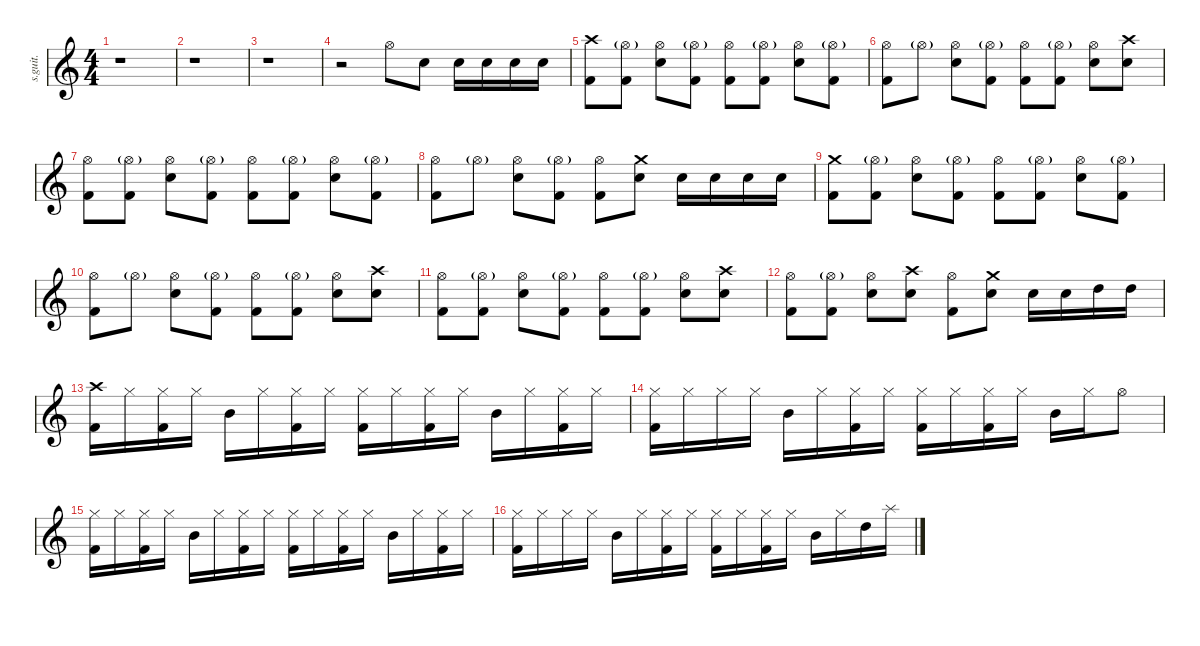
\defaultSystemsLayout 4
\hideDynamics
\bracketExtendMode nobrackets
\track ("Feargal Lawler (Drums)" "s.guit.") {instrument percussion}
\staff {score}
\articulation defaults
\ts (4 4)
\beaming (8 2 2 2 2)
\tempo (74 hide)
\clef g2
\ks c
r.1{dy ff} |
r.1 |
r.1 |
\tempo (82 hide)
r.2 "Hi-Hat (open)".8{lyrics (0 "") lyrics (1 "") lyrics (2 "") lyrics (3 "") lyrics (4 "")} "Snare (hit) 2".8{lyrics (0 "") lyrics (1 "") lyrics (2 "") lyrics (3 "") lyrics (4 "")} "Snare (hit) 2".16{lyrics (0 "") lyrics (1 "") lyrics (2 "") lyrics (3 "") lyrics (4 "")} "Snare (hit) 2".16{lyrics (0 "") lyrics (1 "") lyrics (2 "") lyrics (3 "") lyrics (4 "")} "Snare (hit) 2".16{lyrics (0 "") lyrics (1 "") lyrics (2 "") lyrics (3 "") lyrics (4 "")} "Snare (hit) 2".16{lyrics (0 "") lyrics (1 "") lyrics (2 "") lyrics (3 "") lyrics (4 "")} |
("Crash high (hit)" "Kick (hit) 2").8{lyrics (0 "") lyrics (1 "") lyrics (2 "") lyrics (3 "") lyrics (4 "")} ("Hi-Hat (open)"{g} "Kick (hit) 2").8{lyrics (0 "") lyrics (1 "") lyrics (2 "") lyrics (3 "") lyrics (4 "")} ("Hi-Hat (open)" "Snare (hit) 2").8{lyrics (0 "") lyrics (1 "") lyrics (2 "") lyrics (3 "") lyrics (4 "")} ("Hi-Hat (open)"{g} "Kick (hit) 2").8{lyrics (0 "") lyrics (1 "") lyrics (2 "") lyrics (3 "") lyrics (4 "")} ("Hi-Hat (open)" "Kick (hit) 2").8{lyrics (0 "") lyrics (1 "") lyrics (2 "") lyrics (3 "") lyrics (4 "")} ("Hi-Hat (open)"{g} "Kick (hit) 2").8{lyrics (0 "") lyrics (1 "") lyrics (2 "") lyrics (3 "") lyrics (4 "")} ("Hi-Hat (open)" "Snare (hit) 2").8{lyrics (0 "") lyrics (1 "") lyrics (2 "") lyrics (3 "") lyrics (4 "")} ("Hi-Hat (open)"{g} "Kick (hit) 2").8{lyrics (0 "") lyrics (1 "") lyrics (2 "") lyrics (3 "") lyrics (4 "")} |
("Hi-Hat (open)" "Kick (hit) 2").8{lyrics (0 "") lyrics (1 "") lyrics (2 "") lyrics (3 "") lyrics (4 "")} "Hi-Hat (open)"{g}.8{lyrics (0 "") lyrics (1 "") lyrics (2 "") lyrics (3 "") lyrics (4 "")} ("Hi-Hat (open)" "Snare (hit) 2").8{lyrics (0 "") lyrics (1 "") lyrics (2 "") lyrics (3 "") lyrics (4 "")} ("Hi-Hat (open)"{g} "Kick (hit) 2").8{lyrics (0 "") lyrics (1 "") lyrics (2 "") lyrics (3 "") lyrics (4 "")} ("Hi-Hat (open)" "Kick (hit) 2").8{lyrics (0 "") lyrics (1 "") lyrics (2 "") lyrics (3 "") lyrics (4 "")} ("Hi-Hat (open)"{g} "Kick (hit) 2").8{lyrics (0 "") lyrics (1 "") lyrics (2 "") lyrics (3 "") lyrics (4 "")} ("Hi-Hat (open)" "Snare (hit) 2").8{lyrics (0 "") lyrics (1 "") lyrics (2 "") lyrics (3 "") lyrics (4 "")} ("Crash high (hit)" "Snare (hit) 2").8{lyrics (0 "") lyrics (1 "") lyrics (2 "") lyrics (3 "") lyrics (4 "")} |
("Hi-Hat (open)" "Kick (hit) 2").8{lyrics (0 "") lyrics (1 "") lyrics (2 "") lyrics (3 "") lyrics (4 "")} ("Hi-Hat (open)"{g} "Kick (hit) 2").8{lyrics (0 "") lyrics (1 "") lyrics (2 "") lyrics (3 "") lyrics (4 "")} ("Hi-Hat (open)" "Snare (hit) 2").8{lyrics (0 "") lyrics (1 "") lyrics (2 "") lyrics (3 "") lyrics (4 "")} ("Hi-Hat (open)"{g} "Kick (hit) 2").8{lyrics (0 "") lyrics (1 "") lyrics (2 "") lyrics (3 "") lyrics (4 "")} ("Hi-Hat (open)" "Kick (hit) 2").8{lyrics (0 "") lyrics (1 "") lyrics (2 "") lyrics (3 "") lyrics (4 "")} ("Hi-Hat (open)"{g} "Kick (hit) 2").8{lyrics (0 "") lyrics (1 "") lyrics (2 "") lyrics (3 "") lyrics (4 "")} ("Hi-Hat (open)" "Snare (hit) 2").8{lyrics (0 "") lyrics (1 "") lyrics (2 "") lyrics (3 "") lyrics (4 "")} ("Hi-Hat (open)"{g} "Kick (hit) 2").8{lyrics (0 "") lyrics (1 "") lyrics (2 "") lyrics (3 "") lyrics (4 "")} |
("Hi-Hat (open)" "Kick (hit) 2").8{lyrics (0 "") lyrics (1 "") lyrics (2 "") lyrics (3 "") lyrics (4 "")} "Hi-Hat (open)"{g}.8{lyrics (0 "") lyrics (1 "") lyrics (2 "") lyrics (3 "") lyrics (4 "")} ("Hi-Hat (open)" "Snare (hit) 2").8{lyrics (0 "") lyrics (1 "") lyrics (2 "") lyrics (3 "") lyrics (4 "")} ("Hi-Hat (open)"{g} "Kick (hit) 2").8{lyrics (0 "") lyrics (1 "") lyrics (2 "") lyrics (3 "") lyrics (4 "")} ("Hi-Hat (open)" "Kick (hit) 2").8{lyrics (0 "") lyrics (1 "") lyrics (2 "") lyrics (3 "") lyrics (4 "")} ("Crash medium (hit)" "Snare (hit) 2").8{lyrics (0 "") lyrics (1 "") lyrics (2 "") lyrics (3 "") lyrics (4 "")} "Snare (hit) 2".16{lyrics (0 "") lyrics (1 "") lyrics (2 "") lyrics (3 "") lyrics (4 "")} "Snare (hit) 2".16{lyrics (0 "") lyrics (1 "") lyrics (2 "") lyrics (3 "") lyrics (4 "")} "Snare (hit) 2".16{lyrics (0 "") lyrics (1 "") lyrics (2 "") lyrics (3 "") lyrics (4 "")} "Snare (hit) 2".16{lyrics (0 "") lyrics (1 "") lyrics (2 "") lyrics (3 "") lyrics (4 "")} |
("Crash medium (hit)" "Kick (hit) 2").8{lyrics (0 "") lyrics (1 "") lyrics (2 "") lyrics (3 "") lyrics (4 "")} ("Hi-Hat (open)"{g} "Kick (hit) 2").8{lyrics (0 "") lyrics (1 "") lyrics (2 "") lyrics (3 "") lyrics (4 "")} ("Hi-Hat (open)" "Snare (hit) 2").8{lyrics (0 "") lyrics (1 "") lyrics (2 "") lyrics (3 "") lyrics (4 "")} ("Hi-Hat (open)"{g} "Kick (hit) 2").8{lyrics (0 "") lyrics (1 "") lyrics (2 "") lyrics (3 "") lyrics (4 "")} ("Hi-Hat (open)" "Kick (hit) 2").8{lyrics (0 "") lyrics (1 "") lyrics (2 "") lyrics (3 "") lyrics (4 "")} ("Hi-Hat (open)"{g} "Kick (hit) 2").8{lyrics (0 "") lyrics (1 "") lyrics (2 "") lyrics (3 "") lyrics (4 "")} ("Hi-Hat (open)" "Snare (hit) 2").8{lyrics (0 "") lyrics (1 "") lyrics (2 "") lyrics (3 "") lyrics (4 "")} ("Hi-Hat (open)"{g} "Kick (hit) 2").8{lyrics (0 "") lyrics (1 "") lyrics (2 "") lyrics (3 "") lyrics (4 "")} |
("Hi-Hat (open)" "Kick (hit) 2").8{lyrics (0 "") lyrics (1 "") lyrics (2 "") lyrics (3 "") lyrics (4 "")} "Hi-Hat (open)"{g}.8{lyrics (0 "") lyrics (1 "") lyrics (2 "") lyrics (3 "") lyrics (4 "")} ("Hi-Hat (open)" "Snare (hit) 2").8{lyrics (0 "") lyrics (1 "") lyrics (2 "") lyrics (3 "") lyrics (4 "")} ("Hi-Hat (open)"{g} "Kick (hit) 2").8{lyrics (0 "") lyrics (1 "") lyrics (2 "") lyrics (3 "") lyrics (4 "")} ("Hi-Hat (open)" "Kick (hit) 2").8{lyrics (0 "") lyrics (1 "") lyrics (2 "") lyrics (3 "") lyrics (4 "")} ("Hi-Hat (open)"{g} "Kick (hit) 2").8{lyrics (0 "") lyrics (1 "") lyrics (2 "") lyrics (3 "") lyrics (4 "")} ("Hi-Hat (open)" "Snare (hit) 2").8{lyrics (0 "") lyrics (1 "") lyrics (2 "") lyrics (3 "") lyrics (4 "")} ("Crash high (hit)" "Snare (hit) 2").8{lyrics (0 "") lyrics (1 "") lyrics (2 "") lyrics (3 "") lyrics (4 "")} |
("Hi-Hat (open)" "Kick (hit) 2").8{lyrics (0 "") lyrics (1 "") lyrics (2 "") lyrics (3 "") lyrics (4 "")} ("Hi-Hat (open)"{g} "Kick (hit) 2").8{lyrics (0 "") lyrics (1 "") lyrics (2 "") lyrics (3 "") lyrics (4 "")} ("Hi-Hat (open)" "Snare (hit) 2").8{lyrics (0 "") lyrics (1 "") lyrics (2 "") lyrics (3 "") lyrics (4 "")} ("Hi-Hat (open)"{g} "Kick (hit) 2").8{lyrics (0 "") lyrics (1 "") lyrics (2 "") lyrics (3 "") lyrics (4 "")} ("Hi-Hat (open)" "Kick (hit) 2").8{lyrics (0 "") lyrics (1 "") lyrics (2 "") lyrics (3 "") lyrics (4 "")} ("Hi-Hat (open)"{g} "Kick (hit) 2").8{lyrics (0 "") lyrics (1 "") lyrics (2 "") lyrics (3 "") lyrics (4 "")} ("Hi-Hat (open)" "Snare (hit) 2").8{lyrics (0 "") lyrics (1 "") lyrics (2 "") lyrics (3 "") lyrics (4 "")} ("Crash high (hit)" "Snare (hit) 2").8{lyrics (0 "") lyrics (1 "") lyrics (2 "") lyrics (3 "") lyrics (4 "")} |
("Hi-Hat (open)" "Kick (hit) 2").8{lyrics (0 "") lyrics (1 "") lyrics (2 "") lyrics (3 "") lyrics (4 "")} ("Hi-Hat (open)"{g} "Kick (hit) 2").8{lyrics (0 "") lyrics (1 "") lyrics (2 "") lyrics (3 "") lyrics (4 "")} ("Hi-Hat (open)" "Snare (hit) 2").8{lyrics (0 "") lyrics (1 "") lyrics (2 "") lyrics (3 "") lyrics (4 "")} ("Crash high (hit)" "Snare (hit) 2").8{lyrics (0 "") lyrics (1 "") lyrics (2 "") lyrics (3 "") lyrics (4 "")} ("Hi-Hat (open)" "Kick (hit) 2").8{lyrics (0 "") lyrics (1 "") lyrics (2 "") lyrics (3 "") lyrics (4 "")} ("Crash medium (hit)" "Snare (hit) 2").8{lyrics (0 "") lyrics (1 "") lyrics (2 "") lyrics (3 "") lyrics (4 "")} "Snare (hit) 2".16{lyrics (0 "") lyrics (1 "") lyrics (2 "") lyrics (3 "") lyrics (4 "")} "Snare (hit) 2".16{lyrics (0 "") lyrics (1 "") lyrics (2 "") lyrics (3 "") lyrics (4 "")} "High Tom (hit)".16{lyrics (0 "") lyrics (1 "") lyrics (2 "") lyrics (3 "") lyrics (4 "")} "High Tom (hit)".16{lyrics (0 "") lyrics (1 "") lyrics (2 "") lyrics (3 "") lyrics (4 "")} |
("Crash high (hit)" "Kick (hit) 2").16{lyrics (0 "") lyrics (1 "") lyrics (2 "") lyrics (3 "") lyrics (4 "")} "Hi-Hat (closed)".16{lyrics (0 "") lyrics (1 "") lyrics (2 "") lyrics (3 "") lyrics (4 "")} ("Hi-Hat (closed)" "Kick (hit) 2").16{lyrics (0 "") lyrics (1 "") lyrics (2 "") lyrics (3 "") lyrics (4 "")} "Hi-Hat (closed)".16{lyrics (0 "") lyrics (1 "") lyrics (2 "") lyrics (3 "") lyrics (4 "")} "Mid Tom (hit)".16{lyrics (0 "") lyrics (1 "") lyrics (2 "") lyrics (3 "") lyrics (4 "")} "Hi-Hat (closed)".16{lyrics (0 "") lyrics (1 "") lyrics (2 "") lyrics (3 "") lyrics (4 "")} ("Kick (hit) 2" "Hi-Hat (closed)").16{lyrics (0 "") lyrics (1 "") lyrics (2 "") lyrics (3 "") lyrics (4 "")} "Hi-Hat (closed)".16{lyrics (0 "") lyrics (1 "") lyrics (2 "") lyrics (3 "") lyrics (4 "")} ("Kick (hit) 2" "Hi-Hat (closed)").16{lyrics (0 "") lyrics (1 "") lyrics (2 "") lyrics (3 "") lyrics (4 "")} "Hi-Hat (closed)".16{lyrics (0 "") lyrics (1 "") lyrics (2 "") lyrics (3 "") lyrics (4 "")} ("Kick (hit) 2" "Hi-Hat (closed)").16{lyrics (0 "") lyrics (1 "") lyrics (2 "") lyrics (3 "") lyrics (4 "")} "Hi-Hat (closed)".16{lyrics (0 "") lyrics (1 "") lyrics (2 "") lyrics (3 "") lyrics (4 "")} "Mid Tom (hit)".16{lyrics (0 "") lyrics (1 "") lyrics (2 "") lyrics (3 "") lyrics (4 "")} "Hi-Hat (closed)".16{lyrics (0 "") lyrics (1 "") lyrics (2 "") lyrics (3 "") lyrics (4 "")} ("Hi-Hat (closed)" "Kick (hit) 2").16{lyrics (0 "") lyrics (1 "") lyrics (2 "") lyrics (3 "") lyrics (4 "")} "Hi-Hat (closed)".16{lyrics (0 "") lyrics (1 "") lyrics (2 "") lyrics (3 "") lyrics (4 "")} |
("Hi-Hat (closed)" "Kick (hit) 2").16{lyrics (0 "") lyrics (1 "") lyrics (2 "") lyrics (3 "") lyrics (4 "")} "Hi-Hat (closed)".16{lyrics (0 "") lyrics (1 "") lyrics (2 "") lyrics (3 "") lyrics (4 "")} "Hi-Hat (closed)".16{lyrics (0 "") lyrics (1 "") lyrics (2 "") lyrics (3 "") lyrics (4 "")} "Hi-Hat (closed)".16{lyrics (0 "") lyrics (1 "") lyrics (2 "") lyrics (3 "") lyrics (4 "")} "Mid Tom (hit)".16{lyrics (0 "") lyrics (1 "") lyrics (2 "") lyrics (3 "") lyrics (4 "")} "Hi-Hat (closed)".16{lyrics (0 "") lyrics (1 "") lyrics (2 "") lyrics (3 "") lyrics (4 "")} ("Kick (hit) 2" "Hi-Hat (closed)").16{lyrics (0 "") lyrics (1 "") lyrics (2 "") lyrics (3 "") lyrics (4 "")} "Hi-Hat (closed)".16{lyrics (0 "") lyrics (1 "") lyrics (2 "") lyrics (3 "") lyrics (4 "")} ("Kick (hit) 2" "Hi-Hat (closed)").16{lyrics (0 "") lyrics (1 "") lyrics (2 "") lyrics (3 "") lyrics (4 "")} "Hi-Hat (closed)".16{lyrics (0 "") lyrics (1 "") lyrics (2 "") lyrics (3 "") lyrics (4 "")} ("Kick (hit) 2" "Hi-Hat (closed)").16{lyrics (0 "") lyrics (1 "") lyrics (2 "") lyrics (3 "") lyrics (4 "")} "Hi-Hat (closed)".16{lyrics (0 "") lyrics (1 "") lyrics (2 "") lyrics (3 "") lyrics (4 "")} "Mid Tom (hit)".16{lyrics (0 "") lyrics (1 "") lyrics (2 "") lyrics (3 "") lyrics (4 "")} "Hi-Hat (closed)".16{lyrics (0 "") lyrics (1 "") lyrics (2 "") lyrics (3 "") lyrics (4 "")} "Hi-Hat (open)".8{lyrics (0 "") lyrics (1 "") lyrics (2 "") lyrics (3 "") lyrics (4 "")} |
("Hi-Hat (closed)" "Kick (hit) 2").16{lyrics (0 "") lyrics (1 "") lyrics (2 "") lyrics (3 "") lyrics (4 "")} "Hi-Hat (closed)".16{lyrics (0 "") lyrics (1 "") lyrics (2 "") lyrics (3 "") lyrics (4 "")} ("Hi-Hat (closed)" "Kick (hit) 2").16{lyrics (0 "") lyrics (1 "") lyrics (2 "") lyrics (3 "") lyrics (4 "")} "Hi-Hat (closed)".16{lyrics (0 "") lyrics (1 "") lyrics (2 "") lyrics (3 "") lyrics (4 "")} "Mid Tom (hit)".16{lyrics (0 "") lyrics (1 "") lyrics (2 "") lyrics (3 "") lyrics (4 "")} "Hi-Hat (closed)".16{lyrics (0 "") lyrics (1 "") lyrics (2 "") lyrics (3 "") lyrics (4 "")} ("Kick (hit) 2" "Hi-Hat (closed)").16{lyrics (0 "") lyrics (1 "") lyrics (2 "") lyrics (3 "") lyrics (4 "")} "Hi-Hat (closed)".16{lyrics (0 "") lyrics (1 "") lyrics (2 "") lyrics (3 "") lyrics (4 "")} ("Kick (hit) 2" "Hi-Hat (closed)").16{lyrics (0 "") lyrics (1 "") lyrics (2 "") lyrics (3 "") lyrics (4 "")} "Hi-Hat (closed)".16{lyrics (0 "") lyrics (1 "") lyrics (2 "") lyrics (3 "") lyrics (4 "")} ("Kick (hit) 2" "Hi-Hat (closed)").16{lyrics (0 "") lyrics (1 "") lyrics (2 "") lyrics (3 "") lyrics (4 "")} "Hi-Hat (closed)".16{lyrics (0 "") lyrics (1 "") lyrics (2 "") lyrics (3 "") lyrics (4 "")} "Mid Tom (hit)".16{lyrics (0 "") lyrics (1 "") lyrics (2 "") lyrics (3 "") lyrics (4 "")} "Hi-Hat (closed)".16{lyrics (0 "") lyrics (1 "") lyrics (2 "") lyrics (3 "") lyrics (4 "")} ("Hi-Hat (closed)" "Kick (hit) 2").16{lyrics (0 "") lyrics (1 "") lyrics (2 "") lyrics (3 "") lyrics (4 "")} "Hi-Hat (closed)".16{lyrics (0 "") lyrics (1 "") lyrics (2 "") lyrics (3 "") lyrics (4 "")} |
("Hi-Hat (closed)" "Kick (hit) 2").16{lyrics (0 "") lyrics (1 "") lyrics (2 "") lyrics (3 "") lyrics (4 "")} "Hi-Hat (closed)".16{lyrics (0 "") lyrics (1 "") lyrics (2 "") lyrics (3 "") lyrics (4 "")} "Hi-Hat (closed)".16{lyrics (0 "") lyrics (1 "") lyrics (2 "") lyrics (3 "") lyrics (4 "")} "Hi-Hat (closed)".16{lyrics (0 "") lyrics (1 "") lyrics (2 "") lyrics (3 "") lyrics (4 "")} "Mid Tom (hit)".16{lyrics (0 "") lyrics (1 "") lyrics (2 "") lyrics (3 "") lyrics (4 "")} "Hi-Hat (closed)".16{lyrics (0 "") lyrics (1 "") lyrics (2 "") lyrics (3 "") lyrics (4 "")} ("Kick (hit) 2" "Hi-Hat (closed)").16{lyrics (0 "") lyrics (1 "") lyrics (2 "") lyrics (3 "") lyrics (4 "")} "Hi-Hat (closed)".16{lyrics (0 "") lyrics (1 "") lyrics (2 "") lyrics (3 "") lyrics (4 "")} ("Kick (hit) 2" "Hi-Hat (closed)").16{lyrics (0 "") lyrics (1 "") lyrics (2 "") lyrics (3 "") lyrics (4 "")} "Hi-Hat (closed)".16{lyrics (0 "") lyrics (1 "") lyrics (2 "") lyrics (3 "") lyrics (4 "")} ("Kick (hit) 2" "Hi-Hat (closed)").16{lyrics (0 "") lyrics (1 "") lyrics (2 "") lyrics (3 "") lyrics (4 "")} "Hi-Hat (closed)".16{lyrics (0 "") lyrics (1 "") lyrics (2 "") lyrics (3 "") lyrics (4 "")} "Mid Tom (hit)".16{lyrics (0 "") lyrics (1 "") lyrics (2 "") lyrics (3 "") lyrics (4 "")} "Hi-Hat (closed)".16{lyrics (0 "") lyrics (1 "") lyrics (2 "") lyrics (3 "") lyrics (4 "")} "High Tom (hit)".16{lyrics (0 "") lyrics (1 "") lyrics (2 "") lyrics (3 "") lyrics (4 "")} "Splash (hit)".16{lyrics (0 "") lyrics (1 "") lyrics (2 "") lyrics (3 "") lyrics (4 "")}
